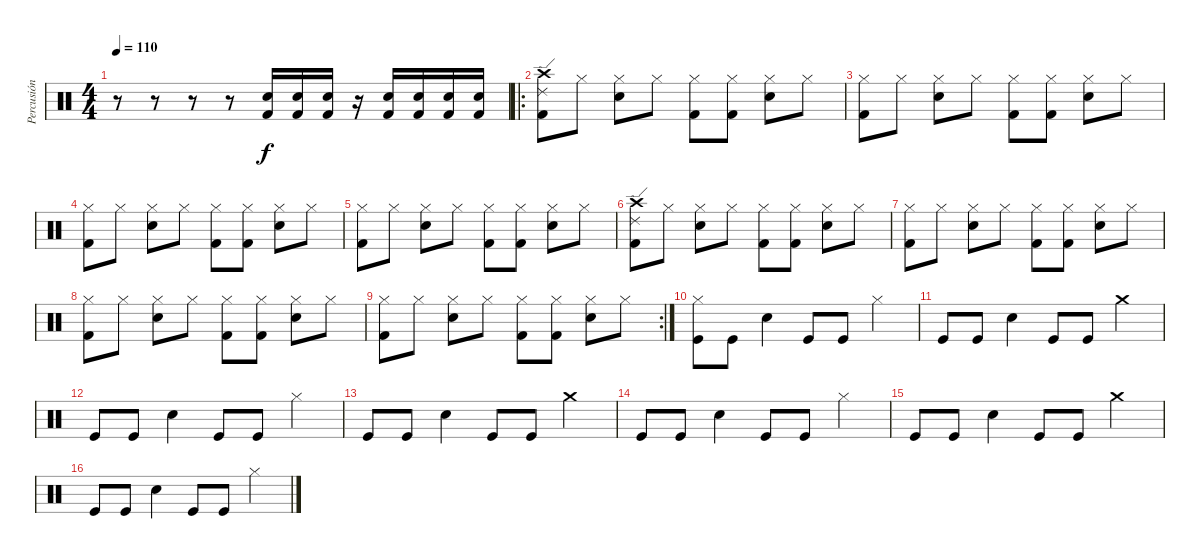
\track ("Percusión" "Percusión") {instrument percussion}
\staff {score}
\articulation defaults
\ts (4 4)
\tempo 110
\clef neutral
\ks c
r.8{dy f} r.8 r.8 r.8 ("Snare (hit) 2" "Kick (hit) 2").16 ("Snare (hit) 2" "Kick (hit) 2").16 ("Snare (hit) 2" "Kick (hit) 2").16 r.16 ("Snare (hit) 2" "Kick (hit) 2").16 ("Snare (hit) 2" "Kick (hit) 2").16 ("Snare (hit) 2" "Kick (hit) 2").16 ("Snare (hit) 2" "Kick (hit) 2").16 |
\ro
("Ride (edge) 2" "Kick (hit) 2" "Crash high (hit)").8 "Hi-Hat (closed)".8 ("Snare (hit) 2" "Hi-Hat (closed)").8 "Hi-Hat (closed)".8 ("Kick (hit) 2" "Hi-Hat (closed)").8 ("Kick (hit) 2" "Hi-Hat (closed)").8 ("Snare (hit) 2" "Hi-Hat (closed)").8 "Hi-Hat (closed)".8 |
("Kick (hit) 2" "Hi-Hat (closed)").8 "Hi-Hat (closed)".8 ("Snare (hit) 2" "Hi-Hat (closed)").8 "Hi-Hat (closed)".8 ("Kick (hit) 2" "Hi-Hat (closed)").8 ("Kick (hit) 2" "Hi-Hat (closed)").8 ("Snare (hit) 2" "Hi-Hat (closed)").8 "Hi-Hat (closed)".8 |
("Kick (hit) 2" "Hi-Hat (closed)").8 "Hi-Hat (closed)".8 ("Snare (hit) 2" "Hi-Hat (closed)").8 "Hi-Hat (closed)".8 ("Kick (hit) 2" "Hi-Hat (closed)").8 ("Kick (hit) 2" "Hi-Hat (closed)").8 ("Snare (hit) 2" "Hi-Hat (closed)").8 "Hi-Hat (closed)".8 |
("Kick (hit) 2" "Hi-Hat (closed)").8 "Hi-Hat (closed)".8 ("Snare (hit) 2" "Hi-Hat (closed)").8 "Hi-Hat (closed)".8 ("Kick (hit) 2" "Hi-Hat (closed)").8 ("Kick (hit) 2" "Hi-Hat (closed)").8 ("Snare (hit) 2" "Hi-Hat (closed)").8 "Hi-Hat (closed)".8 |
("Ride (edge) 2" "Kick (hit) 2" "Crash high (hit)").8 "Hi-Hat (closed)".8 ("Snare (hit) 2" "Hi-Hat (closed)").8 "Hi-Hat (closed)".8 ("Kick (hit) 2" "Hi-Hat (closed)").8 ("Kick (hit) 2" "Hi-Hat (closed)").8 ("Snare (hit) 2" "Hi-Hat (closed)").8 "Hi-Hat (closed)".8 |
("Kick (hit) 2" "Hi-Hat (closed)").8 "Hi-Hat (closed)".8 ("Snare (hit) 2" "Hi-Hat (closed)").8 "Hi-Hat (closed)".8 ("Kick (hit) 2" "Hi-Hat (closed)").8 ("Kick (hit) 2" "Hi-Hat (closed)").8 ("Snare (hit) 2" "Hi-Hat (closed)").8 "Hi-Hat (closed)".8 |
("Kick (hit) 2" "Hi-Hat (closed)").8 "Hi-Hat (closed)".8 ("Snare (hit) 2" "Hi-Hat (closed)").8 "Hi-Hat (closed)".8 ("Kick (hit) 2" "Hi-Hat (closed)").8 ("Kick (hit) 2" "Hi-Hat (closed)").8 ("Snare (hit) 2" "Hi-Hat (closed)").8 "Hi-Hat (closed)".8 |
\rc 2
("Kick (hit) 2" "Hi-Hat (closed)").8 "Hi-Hat (closed)".8 ("Snare (hit) 2" "Hi-Hat (closed)").8 "Hi-Hat (closed)".8 ("Kick (hit) 2" "Hi-Hat (closed)").8 ("Kick (hit) 2" "Hi-Hat (closed)").8 ("Snare (hit) 2" "Hi-Hat (closed)").8 "Hi-Hat (closed)".8 |
("Hi-Hat (closed)" "Kick (hit)").8 "Kick (hit)".8 "Snare (hit) 2".4 "Kick (hit)".8 "Kick (hit)".8 "Hi-Hat (closed)".4 |
"Kick (hit)".8 "Kick (hit)".8 "Snare (hit) 2".4 "Kick (hit)".8 "Kick (hit)".8 "Crash medium (hit)".4 |
"Kick (hit)".8 "Kick (hit)".8 "Snare (hit) 2".4 "Kick (hit)".8 "Kick (hit)".8 "Hi-Hat (closed)".4 |
"Kick (hit)".8 "Kick (hit)".8 "Snare (hit) 2".4 "Kick (hit)".8 "Kick (hit)".8 "Crash medium (hit)".4 |
"Kick (hit)".8 "Kick (hit)".8 "Snare (hit) 2".4 "Kick (hit)".8 "Kick (hit)".8 "Hi-Hat (closed)".4 |
"Kick (hit)".8 "Kick (hit)".8 "Snare (hit) 2".4 "Kick (hit)".8 "Kick (hit)".8 "Crash medium (hit)".4 |
"Kick (hit)".8 "Kick (hit)".8 "Snare (hit) 2".4 "Kick (hit)".8 "Kick (hit)".8 "Hi-Hat (closed)".4
